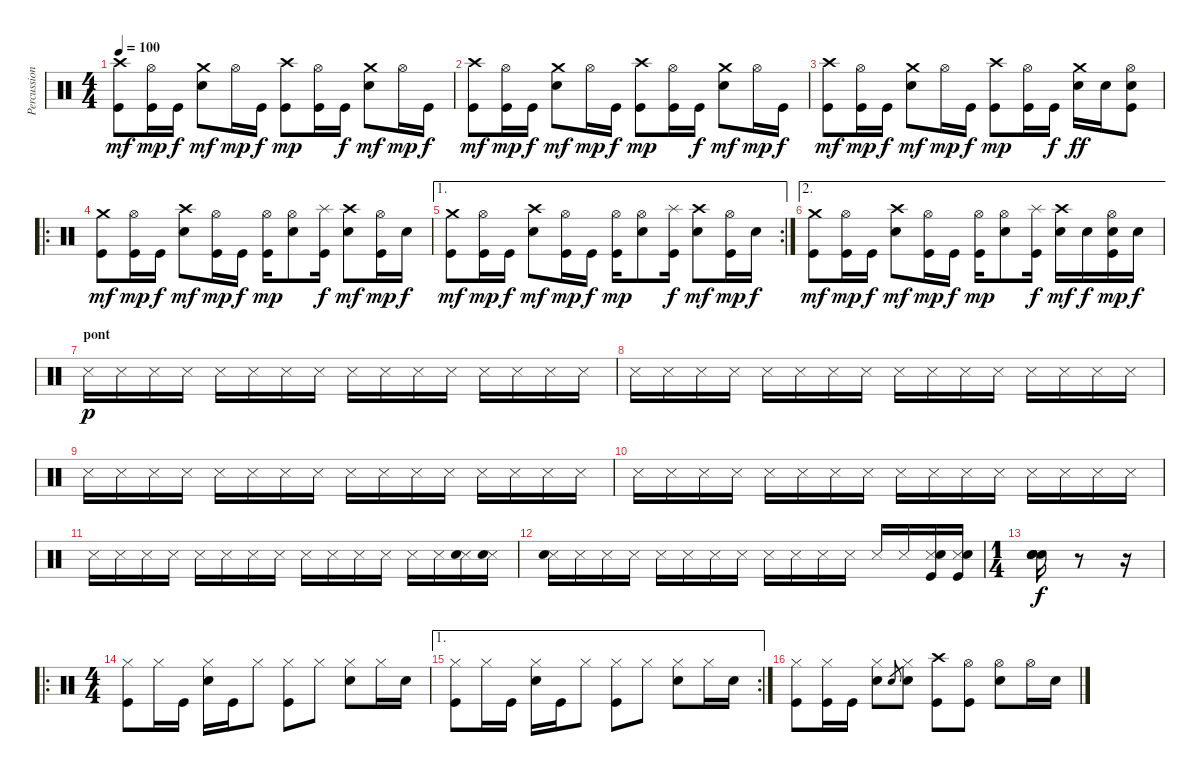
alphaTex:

\track ("Percussions" "Percussion") {instrument percussion}
\staff {score}
\articulation defaults
\ts (4 4)
\tempo 100
\clef neutral
\ks c
("Crash high (hit)" "Kick (hit)").8{dy mf} ("Hi-Hat (open)" "Kick (hit)").16{dy mp} "Kick (hit)".16{dy f} ("Crash medium (hit)" "Electric Snare (hit)").8{dy mf} "Hi-Hat (open)".16{dy mp} "Kick (hit)".16{dy f} ("Crash high (hit)" "Kick (hit)").8{dy mp} ("Hi-Hat (open)" "Kick (hit)").16 "Kick (hit)".16{dy f} ("Crash medium (hit)" "Electric Snare (hit)").8{dy mf} "Hi-Hat (open)".16{dy mp} "Kick (hit)".16{dy f} |
("Crash high (hit)" "Kick (hit)").8{dy mf} ("Hi-Hat (open)" "Kick (hit)").16{dy mp} "Kick (hit)".16{dy f} ("Crash medium (hit)" "Electric Snare (hit)").8{dy mf} "Hi-Hat (open)".16{dy mp} "Kick (hit)".16{dy f} ("Crash high (hit)" "Kick (hit)").8{dy mp} ("Hi-Hat (open)" "Kick (hit)").16 "Kick (hit)".16{dy f} ("Crash medium (hit)" "Electric Snare (hit)").8{dy mf} "Hi-Hat (open)".16{dy mp} "Kick (hit)".16{dy f} |
("Crash high (hit)" "Kick (hit)").8{dy mf} ("Hi-Hat (open)" "Kick (hit)").16{dy mp} "Kick (hit)".16{dy f} ("Crash medium (hit)" "Electric Snare (hit)").8{dy mf} "Hi-Hat (open)".16{dy mp} "Kick (hit)".16{dy f} ("Crash high (hit)" "Kick (hit)").8{dy mp} ("Hi-Hat (open)" "Kick (hit)").16 "Kick (hit)".16{dy f} ("Crash medium (hit)" "Electric Snare (hit)").16{dy ff} "Electric Snare (hit)".16 ("Hi-Hat (open)" "Electric Snare (hit)" "Kick (hit)").8 |
\ro
("Crash medium (hit)" "Kick (hit)").8{dy mf} ("Hi-Hat (open)" "Kick (hit)").16{dy mp} "Kick (hit)".16{dy f} ("Crash high (hit)" "Electric Snare (hit)").8{dy mf} ("Hi-Hat (open)" "Kick (hit)").16{dy mp} "Kick (hit)".16{dy f} ("Hi-Hat (open)" "Kick (hit)").16{dy mp} ("Hi-Hat (open)" "Electric Snare (hit)").8 ("Splash (hit)" "Kick (hit)").16{dy f} ("Crash high (hit)" "Electric Snare (hit)").8{dy mf} ("Hi-Hat (open)" "Kick (hit)").16{dy mp} "Electric Snare (hit)".16{dy f} |
\ae 1
\rc 2
("Crash medium (hit)" "Kick (hit)").8{dy mf} ("Hi-Hat (open)" "Kick (hit)").16{dy mp} "Kick (hit)".16{dy f} ("Crash high (hit)" "Electric Snare (hit)").8{dy mf} ("Hi-Hat (open)" "Kick (hit)").16{dy mp} "Kick (hit)".16{dy f} ("Hi-Hat (open)" "Kick (hit)").16{dy mp} ("Hi-Hat (open)" "Electric Snare (hit)").8 ("Splash (hit)" "Kick (hit)").16{dy f} ("Crash high (hit)" "Electric Snare (hit)").8{dy mf} ("Hi-Hat (open)" "Kick (hit)").16{dy mp} "Electric Snare (hit)".16{dy f} |
\ae 2
("Crash medium (hit)" "Kick (hit)").8{dy mf} ("Hi-Hat (open)" "Kick (hit)").16{dy mp} "Kick (hit)".16{dy f} ("Crash high (hit)" "Electric Snare (hit)").8{dy mf} ("Hi-Hat (open)" "Kick (hit)").16{dy mp} "Kick (hit)".16{dy f} ("Hi-Hat (open)" "Kick (hit)").16{dy mp} ("Hi-Hat (open)" "Electric Snare (hit)").8 ("Splash (hit)" "Kick (hit)").16{dy f} ("Crash high (hit)" "Electric Snare (hit)").16{dy mf} "Electric Snare (hit)".16{dy f} ("Hi-Hat (open)" "Electric Snare (hit)" "Kick (hit)").16{dy mp} "Electric Snare (hit)".16{dy f} |
\section ("" "pont")
"Metronome (hit)".16{dy p} "Metronome (hit)".16 "Metronome (hit)".16 "Metronome (hit)".16 "Metronome (hit)".16 "Metronome (hit)".16 "Metronome (hit)".16 "Metronome (hit)".16 "Metronome (hit)".16 "Metronome (hit)".16 "Metronome (hit)".16 "Metronome (hit)".16 "Metronome (hit)".16 "Metronome (hit)".16 "Metronome (hit)".16 "Metronome (hit)".16 |
"Metronome (hit)".16 "Metronome (hit)".16 "Metronome (hit)".16 "Metronome (hit)".16 "Metronome (hit)".16 "Metronome (hit)".16 "Metronome (hit)".16 "Metronome (hit)".16 "Metronome (hit)".16 "Metronome (hit)".16 "Metronome (hit)".16 "Metronome (hit)".16 "Metronome (hit)".16 "Metronome (hit)".16 "Metronome (hit)".16 "Metronome (hit)".16 |
"Metronome (hit)".16 "Metronome (hit)".16 "Metronome (hit)".16 "Metronome (hit)".16 "Metronome (hit)".16 "Metronome (hit)".16 "Metronome (hit)".16 "Metronome (hit)".16 "Metronome (hit)".16 "Metronome (hit)".16 "Metronome (hit)".16 "Metronome (hit)".16 "Metronome (hit)".16 "Metronome (hit)".16 "Metronome (hit)".16 "Metronome (hit)".16 |
"Metronome (hit)".16 "Metronome (hit)".16 "Metronome (hit)".16 "Metronome (hit)".16 "Metronome (hit)".16 "Metronome (hit)".16 "Metronome (hit)".16 "Metronome (hit)".16 "Metronome (hit)".16 "Metronome (hit)".16 "Metronome (hit)".16 "Metronome (hit)".16 "Metronome (hit)".16 "Metronome (hit)".16 "Metronome (hit)".16 "Metronome (hit)".16 |
"Metronome (hit)".16 "Metronome (hit)".16 "Metronome (hit)".16 "Metronome (hit)".16 "Metronome (hit)".16 "Metronome (hit)".16 "Metronome (hit)".16 "Metronome (hit)".16 "Metronome (hit)".16 "Metronome (hit)".16 "Metronome (hit)".16 "Metronome (hit)".16 "Metronome (hit)".16 "Metronome (hit)".16 ("Metronome (hit)" "Electric Snare (hit)").16 ("Metronome (hit)" "Electric Snare (hit)").16 |
("Metronome (hit)" "Electric Snare (hit)").16 "Metronome (hit)".16 "Metronome (hit)".16 "Metronome (hit)".16 "Metronome (hit)".16 "Metronome (hit)".16 "Metronome (hit)".16 "Metronome (hit)".16 "Metronome (hit)".16 "Metronome (hit)".16 "Metronome (hit)".16 "Metronome (hit)".16 "Metronome (hit)".16 "Metronome (hit)".16 ("Metronome (hit)" "Electric Snare (hit)" "Kick (hit)").16 ("Metronome (hit)" "Electric Snare (hit)" "Kick (hit)").16 |
\ts (1 4)
("Electric Snare (hit)" "Electric Snare (hit)" "Snare (hit) 2" "Snare (hit) 2").16{dy f} r.8 r.16 |
\ro
\ts (4 4)
("Hi-Hat (closed)" "Kick (hit)").8 "Hi-Hat (closed)".16 "Kick (hit)".16 ("Hi-Hat (closed)" "Electric Snare (hit)").16 "Kick (hit)".16 "Hi-Hat (closed)".8 ("Hi-Hat (closed)" "Kick (hit)").8 "Hi-Hat (closed)".8 ("Hi-Hat (closed)" "Electric Snare (hit)").8 "Hi-Hat (closed)".16 "Electric Snare (hit)".16 |
\ae 1
\rc 2
("Hi-Hat (closed)" "Kick (hit)").8 "Hi-Hat (closed)".16 "Kick (hit)".16 ("Hi-Hat (closed)" "Electric Snare (hit)").16 "Kick (hit)".16 "Hi-Hat (closed)".8 ("Hi-Hat (closed)" "Kick (hit)").8 "Hi-Hat (closed)".8 ("Hi-Hat (closed)" "Electric Snare (hit)").8 "Hi-Hat (closed)".16 "Electric Snare (hit)".16 |
("Hi-Hat (closed)" "Kick (hit)").8 ("Hi-Hat (closed)" "Kick (hit)").16 "Kick (hit)".16 ("Hi-Hat (closed)" "Electric Snare (hit)").8 "Electric Snare (hit)".8{gr} ("Hi-Hat (closed)" "Electric Snare (hit)").8 ("Crash high (hit)" "Kick (hit)").8 ("Hi-Hat (open)" "Kick (hit)").8 ("Hi-Hat (open)" "Electric Snare (hit)").8 "Hi-Hat (open)".16 "Electric Snare (hit)".16
